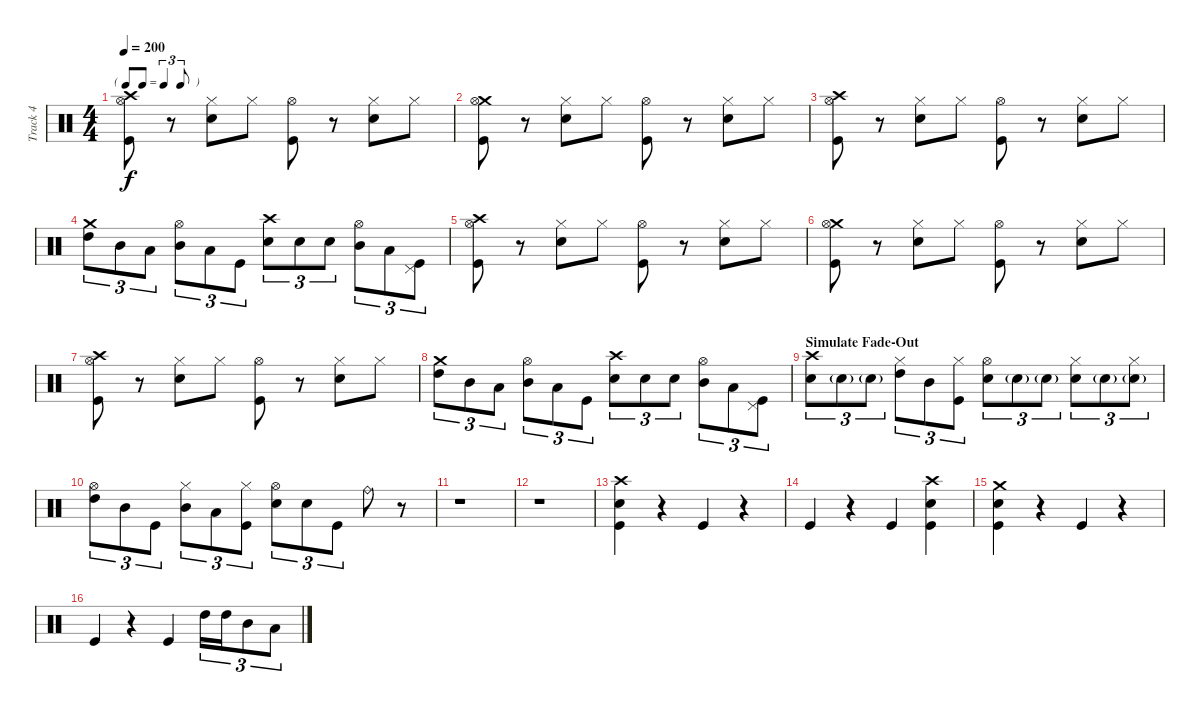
\track ("Track 4" "Track 4") {instrument percussion}
\staff {score}
\articulation defaults
\ts (4 4)
\tf triplet8th
\tempo 200
\clef neutral
\ks c
("Crash high (hit)" "Hi-Hat (open)" "Kick (hit)").8{dy f} r.8 ("Hi-Hat (closed)" "Electric Snare (hit)").8 "Hi-Hat (closed)".8 ("Hi-Hat (open)" "Kick (hit)").8 r.8 ("Hi-Hat (closed)" "Electric Snare (hit)").8 "Hi-Hat (closed)".8 |
("Crash medium (hit)" "Hi-Hat (open)" "Kick (hit)").8 r.8 ("Hi-Hat (closed)" "Electric Snare (hit)").8 "Hi-Hat (closed)".8 ("Hi-Hat (open)" "Kick (hit)").8 r.8 ("Hi-Hat (closed)" "Electric Snare (hit)").8 "Hi-Hat (closed)".8 |
("Crash high (hit)" "Hi-Hat (open)" "Kick (hit)").8 r.8 ("Hi-Hat (closed)" "Electric Snare (hit)").8 "Hi-Hat (closed)".8 ("Hi-Hat (open)" "Kick (hit)").8 r.8 ("Hi-Hat (closed)" "Electric Snare (hit)").8 "Hi-Hat (closed)".8 |
("Crash medium (hit)" "High Tom (hit)").8{tu (3 2)} "Mid Tom (hit)".8{tu (3 2)} "Low Tom (hit)".8{tu (3 2)} ("Mid Tom (hit)" "Hi-Hat (open)").8{tu (3 2)} "Low Tom (hit)".8{tu (3 2)} "Kick (hit)".8{tu (3 2)} ("Crash high (hit)" "Electric Snare (hit)").8{tu (3 2)} "Electric Snare (hit)".8{tu (3 2)} "Electric Snare (hit)".8{tu (3 2)} ("Mid Tom (hit)" "Hi-Hat (open)").8{tu (3 2)} "Low Tom (hit)".8{tu (3 2)} ("Pedal Hi-Hat (hit)" "Kick (hit)").8{tu (3 2)} |
("Crash high (hit)" "Hi-Hat (open)" "Kick (hit)").8 r.8 ("Hi-Hat (closed)" "Electric Snare (hit)").8 "Hi-Hat (closed)".8 ("Hi-Hat (open)" "Kick (hit)").8 r.8 ("Hi-Hat (closed)" "Electric Snare (hit)").8 "Hi-Hat (closed)".8 |
("Crash medium (hit)" "Hi-Hat (open)" "Kick (hit)").8 r.8 ("Hi-Hat (closed)" "Electric Snare (hit)").8 "Hi-Hat (closed)".8 ("Hi-Hat (open)" "Kick (hit)").8 r.8 ("Hi-Hat (closed)" "Electric Snare (hit)").8 "Hi-Hat (closed)".8 |
("Crash high (hit)" "Hi-Hat (open)" "Kick (hit)").8 r.8 ("Hi-Hat (closed)" "Electric Snare (hit)").8 "Hi-Hat (closed)".8 ("Hi-Hat (open)" "Kick (hit)").8 r.8 ("Hi-Hat (closed)" "Electric Snare (hit)").8 "Hi-Hat (closed)".8 |
("Crash medium (hit)" "High Tom (hit)").8{tu (3 2)} "Mid Tom (hit)".8{tu (3 2)} "Low Tom (hit)".8{tu (3 2)} ("Mid Tom (hit)" "Hi-Hat (open)").8{tu (3 2)} "Low Tom (hit)".8{tu (3 2)} "Kick (hit)".8{tu (3 2)} ("Crash high (hit)" "Electric Snare (hit)").8{tu (3 2)} "Electric Snare (hit)".8{tu (3 2)} "Electric Snare (hit)".8{tu (3 2)} ("Mid Tom (hit)" "Hi-Hat (open)").8{tu (3 2)} "Low Tom (hit)".8{tu (3 2)} ("Pedal Hi-Hat (hit)" "Kick (hit)").8{tu (3 2)} |
\section ("" "Simulate Fade-Out")
("Crash high (hit)" "Electric Snare (hit)").8{tu (3 2)} "Electric Snare (hit)"{g}.8{tu (3 2)} "Electric Snare (hit)"{g}.8{tu (3 2)} ("High Tom (hit)" "Hi-Hat (closed)").8{tu (3 2)} "Mid Tom (hit)".8{tu (3 2)} ("Hi-Hat (closed)" "Kick (hit)").8{tu (3 2)} ("Hi-Hat (open)" "Electric Snare (hit)").8{tu (3 2)} "Electric Snare (hit)"{g}.8{tu (3 2)} "Electric Snare (hit)"{g}.8{tu (3 2)} ("Hi-Hat (closed)" "Electric Snare (hit)").8{tu (3 2)} "Electric Snare (hit)"{g}.8{tu (3 2)} ("Hi-Hat (closed)" "Electric Snare (hit)"{g}).8{tu (3 2)} |
("High Tom (hit)" "Hi-Hat (open)").8{tu (3 2)} "Mid Tom (hit)".8{tu (3 2)} "Kick (hit)".8{tu (3 2)} ("Mid Tom (hit)" "Hi-Hat (closed)").8{tu (3 2)} "Low Tom (hit)".8{tu (3 2)} ("Hi-Hat (closed)" "Kick (hit)").8{tu (3 2)} ("Hi-Hat (open)" "Electric Snare (hit)").8{tu (3 2)} "Electric Snare (hit)".8{tu (3 2)} "Kick (hit)".8{tu (3 2)} "Ride (bell)".8 r.8 |
r.1 |
r.1 |
("Crash high (hit)" "Electric Snare (hit)" "Kick (hit)").4 r.4 "Kick (hit)".4 r.4 |
"Kick (hit)".4 r.4 "Kick (hit)".4 ("Crash high (hit)" "Electric Snare (hit)" "Kick (hit)").4 |
("Crash medium (hit)" "Electric Snare (hit)" "Kick (hit)").4 r.4 "Kick (hit)".4 r.4 |
"Kick (hit)".4 r.4 "Kick (hit)".4 "High Tom (hit)".16{tu (3 2)} "High Tom (hit)".16{tu (3 2)} "Mid Tom (hit)".8{tu (3 2)} "Low Tom (hit)".8{tu (3 2)}
